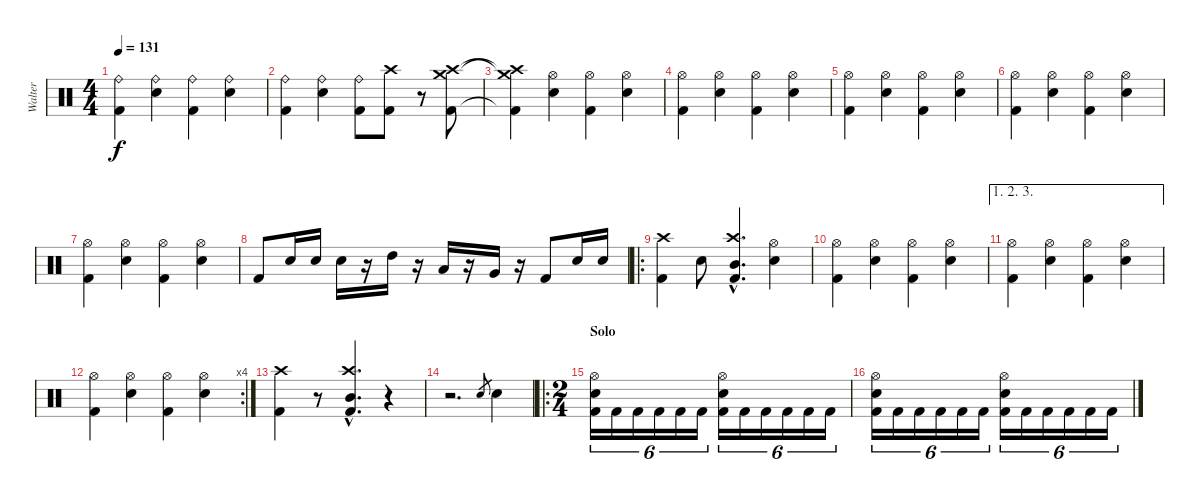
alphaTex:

\track ("Walter" "Walter") {instrument percussion}
\staff {score}
\articulation defaults
\ts (4 4)
\tempo 131
\clef neutral
\ks c
("Ride (bell)" "Kick (hit) 2").4{dy f} ("Ride (bell)" "Electric Snare (hit)").4 ("Ride (bell)" "Kick (hit) 2").4 ("Ride (bell)" "Electric Snare (hit)").4 |
("Ride (bell)" "Kick (hit) 2").4 ("Ride (bell)" "Electric Snare (hit)").4 ("Ride (bell)" "Kick (hit) 2").8 ("Kick (hit) 2" "Crash high (hit)").8 r.8 ("Kick (hit) 2" "Crash high (hit)" "Crash medium (hit)").8 |
("Kick (hit) 2"{t} "Crash medium (hit)"{t} "Crash high (hit)"{t}).4 ("Hi-Hat (open)" "Electric Snare (hit)").4 ("Hi-Hat (open)" "Kick (hit) 2").4 ("Hi-Hat (open)" "Electric Snare (hit)").4 |
("Hi-Hat (open)" "Kick (hit) 2").4 ("Hi-Hat (open)" "Electric Snare (hit)").4 ("Hi-Hat (open)" "Kick (hit) 2").4 ("Hi-Hat (open)" "Electric Snare (hit)").4 |
("Hi-Hat (open)" "Kick (hit) 2").4 ("Hi-Hat (open)" "Electric Snare (hit)").4 ("Hi-Hat (open)" "Kick (hit) 2").4 ("Hi-Hat (open)" "Electric Snare (hit)").4 |
("Hi-Hat (open)" "Kick (hit) 2").4 ("Hi-Hat (open)" "Electric Snare (hit)").4 ("Hi-Hat (open)" "Kick (hit) 2").4 ("Hi-Hat (open)" "Electric Snare (hit)").4 |
("Hi-Hat (open)" "Kick (hit) 2").4 ("Hi-Hat (open)" "Electric Snare (hit)").4 ("Hi-Hat (open)" "Kick (hit) 2").4 ("Hi-Hat (open)" "Electric Snare (hit)").4 |
"Kick (hit) 2".8 "Electric Snare (hit)".16 "Electric Snare (hit)".16 "Electric Snare (hit)".16 r.16 "High Tom (hit)".16 r.16 "Low Tom (hit)".16 r.16 "Very Low Tom (hit)".16 r.16 "Kick (hit) 2".8 "Electric Snare (hit)".16 "Electric Snare (hit)".16 |
\ro
("Kick (hit) 2" "Crash high (hit)").4 "Electric Snare (hit)".8 ("Kick (hit) 2"{hac} "Crash high (hit)"{hac} "Mid Tom (hit)"{hac}).4{d} ("Hi-Hat (open)" "Electric Snare (hit)").4 |
("Hi-Hat (open)" "Kick (hit) 2").4 ("Hi-Hat (open)" "Electric Snare (hit)").4 ("Hi-Hat (open)" "Kick (hit) 2").4 ("Hi-Hat (open)" "Electric Snare (hit)").4 |
\ae (1 2 3)
("Hi-Hat (open)" "Kick (hit) 2").4 ("Hi-Hat (open)" "Electric Snare (hit)").4 ("Hi-Hat (open)" "Kick (hit) 2").4 ("Hi-Hat (open)" "Electric Snare (hit)").4 |
\rc 4
("Hi-Hat (open)" "Kick (hit) 2").4 ("Hi-Hat (open)" "Electric Snare (hit)").4 ("Hi-Hat (open)" "Kick (hit) 2").4 ("Hi-Hat (open)" "Electric Snare (hit)").4 |
("Kick (hit) 2" "Crash high (hit)").4 r.8 ("Kick (hit) 2"{hac} "Crash high (hit)"{hac} "Mid Tom (hit)"{hac}).4{d} r.4 |
r.2{d} "Electric Snare (hit)".8{gr} "Electric Snare (hit)".4 |
\ro
\ts (2 4)
\section ("" "Solo")
("Hi-Hat (open)" "Kick (hit) 2" "Electric Snare (hit)").16{tu (6 4)} "Kick (hit) 2".16{tu (6 4)} "Kick (hit) 2".16{tu (6 4)} "Kick (hit) 2".16{tu (6 4)} "Kick (hit) 2".16{tu (6 4)} "Kick (hit) 2".16{tu (6 4)} ("Hi-Hat (open)" "Kick (hit) 2" "Electric Snare (hit)").16{tu (6 4)} "Kick (hit) 2".16{tu (6 4)} "Kick (hit) 2".16{tu (6 4)} "Kick (hit) 2".16{tu (6 4)} "Kick (hit) 2".16{tu (6 4)} "Kick (hit) 2".16{tu (6 4)} |
("Hi-Hat (open)" "Kick (hit) 2" "Electric Snare (hit)").16{tu (6 4)} "Kick (hit) 2".16{tu (6 4)} "Kick (hit) 2".16{tu (6 4)} "Kick (hit) 2".16{tu (6 4)} "Kick (hit) 2".16{tu (6 4)} "Kick (hit) 2".16{tu (6 4)} ("Hi-Hat (open)" "Kick (hit) 2" "Electric Snare (hit)").16{tu (6 4)} "Kick (hit) 2".16{tu (6 4)} "Kick (hit) 2".16{tu (6 4)} "Kick (hit) 2".16{tu (6 4)} "Kick (hit) 2".16{tu (6 4)} "Kick (hit) 2".16{tu (6 4)}
